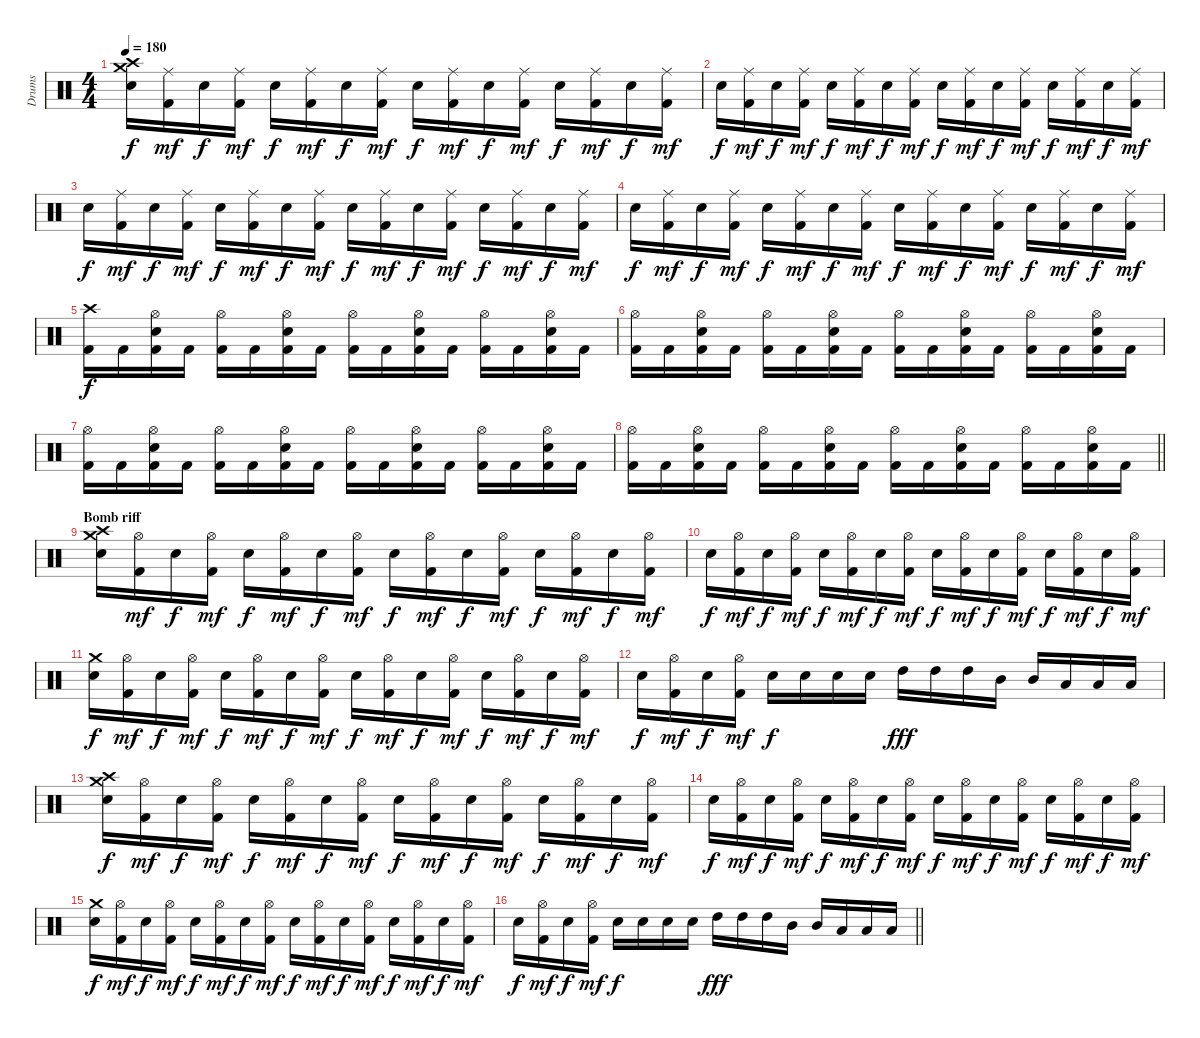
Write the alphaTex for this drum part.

\track ("Drums" "Drums") {instrument percussion}
\staff {score}
\articulation defaults
\ts (4 4)
\tempo 180
\clef neutral
\ks c
("Crash medium (hit)" "Crash high (hit)" "Snare (hit) 2").16{dy f} ("Ride (middle)" "Kick (hit) 2").16{dy mf} "Snare (hit) 2".16{dy f} ("Ride (middle)" "Kick (hit) 2").16{dy mf} "Snare (hit) 2".16{dy f} ("Ride (middle)" "Kick (hit) 2").16{dy mf} "Snare (hit) 2".16{dy f} ("Ride (middle)" "Kick (hit) 2").16{dy mf} "Snare (hit) 2".16{dy f} ("Ride (middle)" "Kick (hit) 2").16{dy mf} "Snare (hit) 2".16{dy f} ("Ride (middle)" "Kick (hit) 2").16{dy mf} "Snare (hit) 2".16{dy f} ("Ride (middle)" "Kick (hit) 2").16{dy mf} "Snare (hit) 2".16{dy f} ("Ride (middle)" "Kick (hit) 2").16{dy mf} |
"Snare (hit) 2".16{dy f} ("Ride (middle)" "Kick (hit) 2").16{dy mf} "Snare (hit) 2".16{dy f} ("Ride (middle)" "Kick (hit) 2").16{dy mf} "Snare (hit) 2".16{dy f} ("Ride (middle)" "Kick (hit) 2").16{dy mf} "Snare (hit) 2".16{dy f} ("Ride (middle)" "Kick (hit) 2").16{dy mf} "Snare (hit) 2".16{dy f} ("Ride (middle)" "Kick (hit) 2").16{dy mf} "Snare (hit) 2".16{dy f} ("Ride (middle)" "Kick (hit) 2").16{dy mf} "Snare (hit) 2".16{dy f} ("Ride (middle)" "Kick (hit) 2").16{dy mf} "Snare (hit) 2".16{dy f} ("Ride (middle)" "Kick (hit) 2").16{dy mf} |
"Snare (hit) 2".16{dy f} ("Ride (middle)" "Kick (hit) 2").16{dy mf} "Snare (hit) 2".16{dy f} ("Ride (middle)" "Kick (hit) 2").16{dy mf} "Snare (hit) 2".16{dy f} ("Ride (middle)" "Kick (hit) 2").16{dy mf} "Snare (hit) 2".16{dy f} ("Ride (middle)" "Kick (hit) 2").16{dy mf} "Snare (hit) 2".16{dy f} ("Ride (middle)" "Kick (hit) 2").16{dy mf} "Snare (hit) 2".16{dy f} ("Ride (middle)" "Kick (hit) 2").16{dy mf} "Snare (hit) 2".16{dy f} ("Ride (middle)" "Kick (hit) 2").16{dy mf} "Snare (hit) 2".16{dy f} ("Ride (middle)" "Kick (hit) 2").16{dy mf} |
"Snare (hit) 2".16{dy f} ("Ride (middle)" "Kick (hit) 2").16{dy mf} "Snare (hit) 2".16{dy f} ("Ride (middle)" "Kick (hit) 2").16{dy mf} "Snare (hit) 2".16{dy f} ("Ride (middle)" "Kick (hit) 2").16{dy mf} "Snare (hit) 2".16{dy f} ("Ride (middle)" "Kick (hit) 2").16{dy mf} "Snare (hit) 2".16{dy f} ("Ride (middle)" "Kick (hit) 2").16{dy mf} "Snare (hit) 2".16{dy f} ("Ride (middle)" "Kick (hit) 2").16{dy mf} "Snare (hit) 2".16{dy f} ("Ride (middle)" "Kick (hit) 2").16{dy mf} "Snare (hit) 2".16{dy f} ("Ride (middle)" "Kick (hit) 2").16{dy mf} |
("Crash high (hit)" "Kick (hit) 2").16{dy f} "Kick (hit) 2".16 ("Hi-Hat (open)" "Snare (hit) 2" "Kick (hit) 2").16 "Kick (hit) 2".16 ("Hi-Hat (open)" "Kick (hit) 2").16 "Kick (hit) 2".16 ("Hi-Hat (open)" "Snare (hit) 2" "Kick (hit) 2").16 "Kick (hit) 2".16 ("Hi-Hat (open)" "Kick (hit) 2").16 "Kick (hit) 2".16 ("Hi-Hat (open)" "Snare (hit) 2" "Kick (hit) 2").16 "Kick (hit) 2".16 ("Hi-Hat (open)" "Kick (hit) 2").16 "Kick (hit) 2".16 ("Hi-Hat (open)" "Snare (hit) 2" "Kick (hit) 2").16 "Kick (hit) 2".16 |
("Hi-Hat (open)" "Kick (hit) 2").16 "Kick (hit) 2".16 ("Hi-Hat (open)" "Snare (hit) 2" "Kick (hit) 2").16 "Kick (hit) 2".16 ("Hi-Hat (open)" "Kick (hit) 2").16 "Kick (hit) 2".16 ("Hi-Hat (open)" "Snare (hit) 2" "Kick (hit) 2").16 "Kick (hit) 2".16 ("Hi-Hat (open)" "Kick (hit) 2").16 "Kick (hit) 2".16 ("Hi-Hat (open)" "Snare (hit) 2" "Kick (hit) 2").16 "Kick (hit) 2".16 ("Hi-Hat (open)" "Kick (hit) 2").16 "Kick (hit) 2".16 ("Hi-Hat (open)" "Snare (hit) 2" "Kick (hit) 2").16 "Kick (hit) 2".16 |
("Hi-Hat (open)" "Kick (hit) 2").16 "Kick (hit) 2".16 ("Hi-Hat (open)" "Snare (hit) 2" "Kick (hit) 2").16 "Kick (hit) 2".16 ("Hi-Hat (open)" "Kick (hit) 2").16 "Kick (hit) 2".16 ("Hi-Hat (open)" "Snare (hit) 2" "Kick (hit) 2").16 "Kick (hit) 2".16 ("Hi-Hat (open)" "Kick (hit) 2").16 "Kick (hit) 2".16 ("Hi-Hat (open)" "Snare (hit) 2" "Kick (hit) 2").16 "Kick (hit) 2".16 ("Hi-Hat (open)" "Kick (hit) 2").16 "Kick (hit) 2".16 ("Hi-Hat (open)" "Snare (hit) 2" "Kick (hit) 2").16 "Kick (hit) 2".16 |
\barLineRight lightlight
("Hi-Hat (open)" "Kick (hit) 2").16 "Kick (hit) 2".16 ("Hi-Hat (open)" "Snare (hit) 2" "Kick (hit) 2").16 "Kick (hit) 2".16 ("Hi-Hat (open)" "Kick (hit) 2").16 "Kick (hit) 2".16 ("Hi-Hat (open)" "Snare (hit) 2" "Kick (hit) 2").16 "Kick (hit) 2".16 ("Hi-Hat (open)" "Kick (hit) 2").16 "Kick (hit) 2".16 ("Hi-Hat (open)" "Snare (hit) 2" "Kick (hit) 2").16 "Kick (hit) 2".16 ("Hi-Hat (open)" "Kick (hit) 2").16 "Kick (hit) 2".16 ("Hi-Hat (open)" "Snare (hit) 2" "Kick (hit) 2").16 "Kick (hit) 2".16 |
\section ("" "Bomb riff")
("Crash medium (hit)" "Crash high (hit)" "Snare (hit) 2").16 ("Hi-Hat (open)" "Kick (hit) 2").16{dy mf} "Snare (hit) 2".16{dy f} ("Hi-Hat (open)" "Kick (hit) 2").16{dy mf} "Snare (hit) 2".16{dy f} ("Hi-Hat (open)" "Kick (hit) 2").16{dy mf} "Snare (hit) 2".16{dy f} ("Hi-Hat (open)" "Kick (hit) 2").16{dy mf} "Snare (hit) 2".16{dy f} ("Hi-Hat (open)" "Kick (hit) 2").16{dy mf} "Snare (hit) 2".16{dy f} ("Hi-Hat (open)" "Kick (hit) 2").16{dy mf} "Snare (hit) 2".16{dy f} ("Hi-Hat (open)" "Kick (hit) 2").16{dy mf} "Snare (hit) 2".16{dy f} ("Hi-Hat (open)" "Kick (hit) 2").16{dy mf} |
"Snare (hit) 2".16{dy f} ("Hi-Hat (open)" "Kick (hit) 2").16{dy mf} "Snare (hit) 2".16{dy f} ("Hi-Hat (open)" "Kick (hit) 2").16{dy mf} "Snare (hit) 2".16{dy f} ("Hi-Hat (open)" "Kick (hit) 2").16{dy mf} "Snare (hit) 2".16{dy f} ("Hi-Hat (open)" "Kick (hit) 2").16{dy mf} "Snare (hit) 2".16{dy f} ("Hi-Hat (open)" "Kick (hit) 2").16{dy mf} "Snare (hit) 2".16{dy f} ("Hi-Hat (open)" "Kick (hit) 2").16{dy mf} "Snare (hit) 2".16{dy f} ("Hi-Hat (open)" "Kick (hit) 2").16{dy mf} "Snare (hit) 2".16{dy f} ("Hi-Hat (open)" "Kick (hit) 2").16{dy mf} |
("Crash medium (hit)" "Snare (hit) 2").16{dy f} ("Hi-Hat (open)" "Kick (hit) 2").16{dy mf} "Snare (hit) 2".16{dy f} ("Hi-Hat (open)" "Kick (hit) 2").16{dy mf} "Snare (hit) 2".16{dy f} ("Hi-Hat (open)" "Kick (hit) 2").16{dy mf} "Snare (hit) 2".16{dy f} ("Hi-Hat (open)" "Kick (hit) 2").16{dy mf} "Snare (hit) 2".16{dy f} ("Hi-Hat (open)" "Kick (hit) 2").16{dy mf} "Snare (hit) 2".16{dy f} ("Hi-Hat (open)" "Kick (hit) 2").16{dy mf} "Snare (hit) 2".16{dy f} ("Hi-Hat (open)" "Kick (hit) 2").16{dy mf} "Snare (hit) 2".16{dy f} ("Hi-Hat (open)" "Kick (hit) 2").16{dy mf} |
"Snare (hit) 2".16{dy f} ("Hi-Hat (open)" "Kick (hit) 2").16{dy mf} "Snare (hit) 2".16{dy f} ("Hi-Hat (open)" "Kick (hit) 2").16{dy mf} "Snare (hit) 2".16{dy f} "Snare (hit) 2".16 "Snare (hit) 2".16 "Snare (hit) 2".16 "High Tom (hit)".16{dy fff} "High Tom (hit)".16 "High Tom (hit)".16 "Mid Tom (hit)".16 "Mid Tom (hit)".16 "Low Tom (hit)".16 "Low Tom (hit)".16 "Low Tom (hit)".16 |
("Crash medium (hit)" "Crash high (hit)" "Snare (hit) 2").16{dy f} ("Hi-Hat (open)" "Kick (hit) 2").16{dy mf} "Snare (hit) 2".16{dy f} ("Hi-Hat (open)" "Kick (hit) 2").16{dy mf} "Snare (hit) 2".16{dy f} ("Hi-Hat (open)" "Kick (hit) 2").16{dy mf} "Snare (hit) 2".16{dy f} ("Hi-Hat (open)" "Kick (hit) 2").16{dy mf} "Snare (hit) 2".16{dy f} ("Hi-Hat (open)" "Kick (hit) 2").16{dy mf} "Snare (hit) 2".16{dy f} ("Hi-Hat (open)" "Kick (hit) 2").16{dy mf} "Snare (hit) 2".16{dy f} ("Hi-Hat (open)" "Kick (hit) 2").16{dy mf} "Snare (hit) 2".16{dy f} ("Hi-Hat (open)" "Kick (hit) 2").16{dy mf} |
"Snare (hit) 2".16{dy f} ("Hi-Hat (open)" "Kick (hit) 2").16{dy mf} "Snare (hit) 2".16{dy f} ("Hi-Hat (open)" "Kick (hit) 2").16{dy mf} "Snare (hit) 2".16{dy f} ("Hi-Hat (open)" "Kick (hit) 2").16{dy mf} "Snare (hit) 2".16{dy f} ("Hi-Hat (open)" "Kick (hit) 2").16{dy mf} "Snare (hit) 2".16{dy f} ("Hi-Hat (open)" "Kick (hit) 2").16{dy mf} "Snare (hit) 2".16{dy f} ("Hi-Hat (open)" "Kick (hit) 2").16{dy mf} "Snare (hit) 2".16{dy f} ("Hi-Hat (open)" "Kick (hit) 2").16{dy mf} "Snare (hit) 2".16{dy f} ("Hi-Hat (open)" "Kick (hit) 2").16{dy mf} |
("Crash medium (hit)" "Snare (hit) 2").16{dy f} ("Hi-Hat (open)" "Kick (hit) 2").16{dy mf} "Snare (hit) 2".16{dy f} ("Hi-Hat (open)" "Kick (hit) 2").16{dy mf} "Snare (hit) 2".16{dy f} ("Hi-Hat (open)" "Kick (hit) 2").16{dy mf} "Snare (hit) 2".16{dy f} ("Hi-Hat (open)" "Kick (hit) 2").16{dy mf} "Snare (hit) 2".16{dy f} ("Hi-Hat (open)" "Kick (hit) 2").16{dy mf} "Snare (hit) 2".16{dy f} ("Hi-Hat (open)" "Kick (hit) 2").16{dy mf} "Snare (hit) 2".16{dy f} ("Hi-Hat (open)" "Kick (hit) 2").16{dy mf} "Snare (hit) 2".16{dy f} ("Hi-Hat (open)" "Kick (hit) 2").16{dy mf} |
\barLineRight lightlight "Snare (hit) 2".16{dy f}
("Hi-Hat (open)" "Kick (hit) 2").16{dy mf} "Snare (hit) 2".16{dy f} ("Hi-Hat (open)" "Kick (hit) 2").16{dy mf} "Snare (hit) 2".16{dy f} "Snare (hit) 2".16 "Snare (hit) 2".16 "Snare (hit) 2".16 "High Tom (hit)".16{dy fff} "High Tom (hit)".16 "High Tom (hit)".16 "Mid Tom (hit)".16 "Mid Tom (hit)".16 "Low Tom (hit)".16 "Low Tom (hit)".16 "Low Tom (hit)".16
